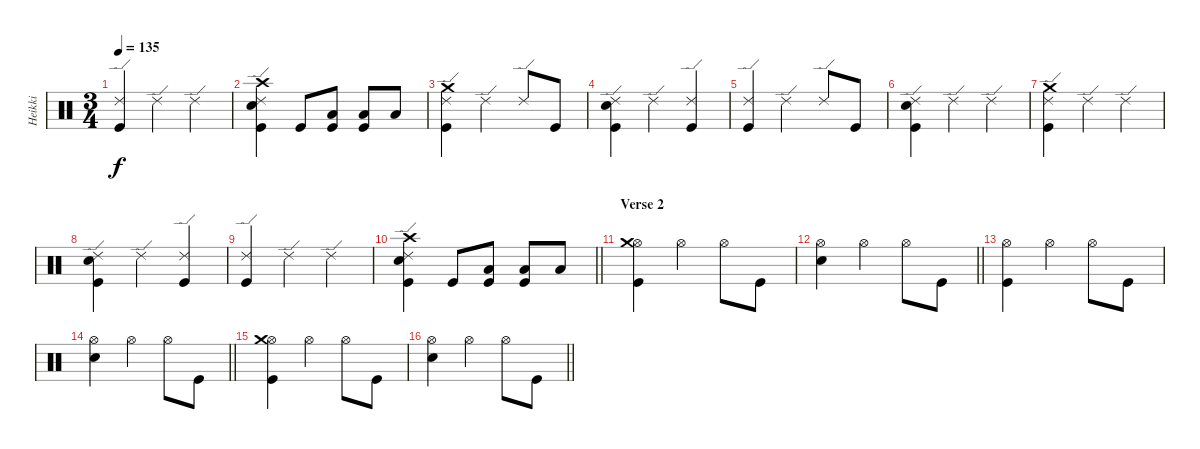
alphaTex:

\track ("Heikki" "Heikki") {instrument percussion}
\staff {score}
\articulation defaults
\ts (3 4)
\tempo 135
\clef neutral
\ks c
("Ride (edge) 2" "Kick (hit)").4{dy f} "Ride (edge) 2".4 "Ride (edge) 2".4 |
("Ride (edge) 2" "Crash high (hit)" "Snare (hit) 2" "Kick (hit)").4 "Kick (hit)".8 ("Low Tom (hit)" "Kick (hit)").8 ("Low Tom (hit)" "Kick (hit)").8 "Low Floor Tom (hit)".8 |
("Ride (edge) 2" "Crash medium (hit)" "Kick (hit)").4 "Ride (edge) 2".4 "Ride (edge) 2".8 "Kick (hit)".8 |
("Ride (edge) 2" "Snare (hit) 2" "Kick (hit)").4 "Ride (edge) 2".4 ("Ride (edge) 2" "Kick (hit)").4 |
("Ride (edge) 2" "Kick (hit)").4 "Ride (edge) 2".4 "Ride (edge) 2".8 "Kick (hit)".8 |
("Ride (edge) 2" "Snare (hit) 2" "Kick (hit)").4 "Ride (edge) 2".4 "Ride (edge) 2".4 |
("Ride (edge) 2" "Crash medium (hit)" "Kick (hit)").4 "Ride (edge) 2".4 "Ride (edge) 2".4 |
("Ride (edge) 2" "Snare (hit) 2" "Kick (hit)").4 "Ride (edge) 2".4 ("Ride (edge) 2" "Kick (hit)").4 |
("Ride (edge) 2" "Kick (hit)").4 "Ride (edge) 2".4 "Ride (edge) 2".4 |
\barLineRight lightlight
("Ride (edge) 2" "Crash high (hit)" "Snare (hit) 2" "Kick (hit)").4 "Kick (hit)".8 ("Low Tom (hit)" "Kick (hit)").8 ("Low Tom (hit)" "Kick (hit)").8 "Low Floor Tom (hit)".8 |
\section ("" "Verse 2")
("Hi-Hat (open)" "Crash medium (hit)" "Kick (hit)").4 "Hi-Hat (open)".4 "Hi-Hat (open)".8 "Kick (hit)".8 |
\barLineRight lightlight
("Hi-Hat (open)" "Snare (hit) 2").4 "Hi-Hat (open)".4 "Hi-Hat (open)".8 "Kick (hit)".8 |
("Hi-Hat (open)" "Kick (hit)").4 "Hi-Hat (open)".4 "Hi-Hat (open)".8 "Kick (hit)".8 |
\barLineRight lightlight
("Hi-Hat (open)" "Snare (hit) 2").4 "Hi-Hat (open)".4 "Hi-Hat (open)".8 "Kick (hit)".8 |
("Hi-Hat (open)" "Crash medium (hit)" "Kick (hit)").4 "Hi-Hat (open)".4 "Hi-Hat (open)".8 "Kick (hit)".8 |
\barLineRight lightlight
("Hi-Hat (open)" "Snare (hit) 2").4 "Hi-Hat (open)".4 "Hi-Hat (open)".8 "Kick (hit)".8
